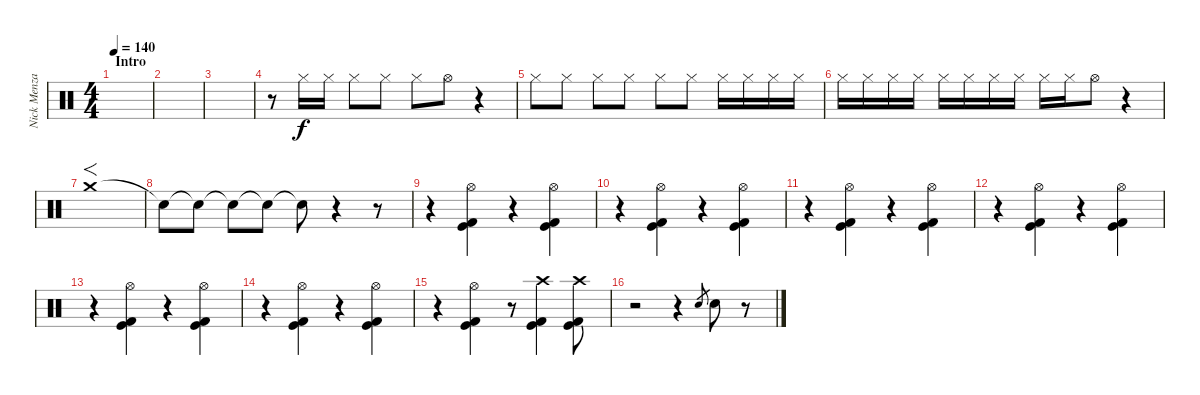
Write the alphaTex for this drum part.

\track ("Nick Menza" "Nick Menza") {instrument percussion}
\staff {score}
\articulation defaults
\ts (4 4)
\section ("" "Intro")
\tempo 140
\clef neutral
\ks c
|
|
|
r.8 "Hi-Hat (closed)".16 "Hi-Hat (closed)".16 "Hi-Hat (closed)".8 "Hi-Hat (closed)".8 "Hi-Hat (closed)".8 "Hi-Hat (open)".8 r.4 |
"Hi-Hat (closed)".8 "Hi-Hat (closed)".8 "Hi-Hat (closed)".8 "Hi-Hat (closed)".8 "Hi-Hat (closed)".8 "Hi-Hat (closed)".8 "Hi-Hat (closed)".16 "Hi-Hat (closed)".16 "Hi-Hat (closed)".16 "Hi-Hat (closed)".16 |
"Hi-Hat (closed)".16 "Hi-Hat (closed)".16 "Hi-Hat (closed)".16 "Hi-Hat (closed)".16 "Hi-Hat (closed)".16 "Hi-Hat (closed)".16 "Hi-Hat (closed)".16 "Hi-Hat (closed)".16 "Hi-Hat (closed)".16 "Hi-Hat (closed)".16 "Hi-Hat (open)".8 r.4 |
"Crash medium (hit)"{tr (49 32)}.1{f} |
"Snare (hit)"{t}.8 "Snare (hit)"{t}.8 "Snare (hit)"{t}.8 "Snare (hit)"{t}.8 "Snare (hit)"{t}.8 r.4 r.8 |
r.4 ("Hi-Hat (open)" "Kick (hit)" "Kick (hit) 2").4 r.4 ("Hi-Hat (open)" "Kick (hit)" "Kick (hit) 2").4 |
r.4 ("Hi-Hat (open)" "Kick (hit)" "Kick (hit) 2").4 r.4 ("Hi-Hat (open)" "Kick (hit)" "Kick (hit) 2").4 |
r.4 ("Hi-Hat (open)" "Kick (hit)" "Kick (hit) 2").4 r.4 ("Hi-Hat (open)" "Kick (hit)" "Kick (hit) 2").4 |
r.4 ("Hi-Hat (open)" "Kick (hit)" "Kick (hit) 2").4 r.4 ("Hi-Hat (open)" "Kick (hit)" "Kick (hit) 2").4 |
r.4 ("Hi-Hat (open)" "Kick (hit)" "Kick (hit) 2").4 r.4 ("Hi-Hat (open)" "Kick (hit)" "Kick (hit) 2").4 |
r.4 ("Hi-Hat (open)" "Kick (hit)" "Kick (hit) 2").4 r.4 ("Hi-Hat (open)" "Kick (hit)" "Kick (hit) 2").4 |
r.4 ("Hi-Hat (open)" "Kick (hit)" "Kick (hit) 2").4 r.8 ("Crash high (hit)" "Kick (hit)" "Kick (hit) 2").4 ("Crash high (hit)" "Kick (hit)" "Kick (hit) 2").8 |
r.2 r.4 "Electric Snare (hit)".8{gr} "Electric Snare (hit)".8 r.8
